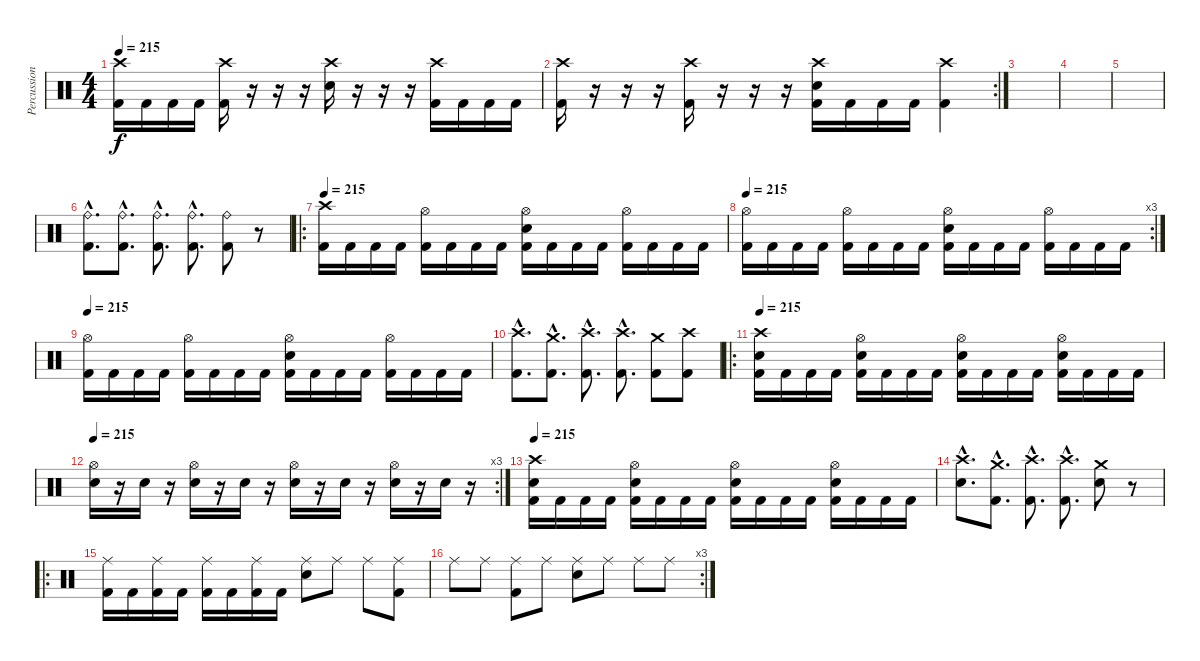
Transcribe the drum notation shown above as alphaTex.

\track ("Percussions" "Percussion") {instrument percussion}
\staff {score}
\articulation defaults
\ts (4 4)
\tempo 215
\clef neutral
\ks c
("Crash high (hit)" "Kick (hit) 2").16{dy f} "Kick (hit) 2".16 "Kick (hit) 2".16 "Kick (hit) 2".16 ("Crash high (hit)" "Kick (hit) 2").16 r.16 r.16 r.16 ("Crash high (hit)" "Electric Snare (hit)").16 r.16 r.16 r.16 ("Crash high (hit)" "Kick (hit) 2").16 "Kick (hit) 2".16 "Kick (hit) 2".16 "Kick (hit) 2".16 |
\rc 2
("Crash high (hit)" "Kick (hit) 2").16 r.16 r.16 r.16 ("Crash high (hit)" "Kick (hit) 2").16 r.16 r.16 r.16 ("Crash high (hit)" "Electric Snare (hit)" "Kick (hit) 2").16 "Kick (hit) 2".16 "Kick (hit) 2".16 "Kick (hit) 2".16 ("Crash high (hit)" "Kick (hit) 2").4 |
|
|
|
("Ride (bell)"{hac} "Kick (hit) 2"{hac}).8{d} ("Ride (bell)"{hac} "Kick (hit) 2"{hac}).8{d} ("Ride (bell)"{hac} "Kick (hit) 2"{hac}).8{d} ("Ride (bell)"{hac} "Kick (hit) 2"{hac}).8{d} ("Ride (bell)" "Kick (hit) 2").8 r.8 |
\ro
\tempo 215
("Crash high (hit)" "Kick (hit) 2").16 "Kick (hit) 2".16 "Kick (hit) 2".16 "Kick (hit) 2".16 ("Hi-Hat (open)" "Kick (hit) 2").16 "Kick (hit) 2".16 "Kick (hit) 2".16 "Kick (hit) 2".16 ("Hi-Hat (open)" "Electric Snare (hit)" "Kick (hit) 2").16 "Kick (hit) 2".16 "Kick (hit) 2".16 "Kick (hit) 2".16 ("Hi-Hat (open)" "Kick (hit) 2").16 "Kick (hit) 2".16 "Kick (hit) 2".16 "Kick (hit) 2".16 |
\rc 3
\tempo 215
("Hi-Hat (open)" "Kick (hit) 2").16 "Kick (hit) 2".16 "Kick (hit) 2".16 "Kick (hit) 2".16 ("Hi-Hat (open)" "Kick (hit) 2").16 "Kick (hit) 2".16 "Kick (hit) 2".16 "Kick (hit) 2".16 ("Hi-Hat (open)" "Electric Snare (hit)" "Kick (hit) 2").16 "Kick (hit) 2".16 "Kick (hit) 2".16 "Kick (hit) 2".16 ("Hi-Hat (open)" "Kick (hit) 2").16 "Kick (hit) 2".16 "Kick (hit) 2".16 "Kick (hit) 2".16 |
\tempo 215
("Hi-Hat (open)" "Kick (hit) 2").16 "Kick (hit) 2".16 "Kick (hit) 2".16 "Kick (hit) 2".16 ("Hi-Hat (open)" "Kick (hit) 2").16 "Kick (hit) 2".16 "Kick (hit) 2".16 "Kick (hit) 2".16 ("Hi-Hat (open)" "Electric Snare (hit)" "Kick (hit) 2").16 "Kick (hit) 2".16 "Kick (hit) 2".16 "Kick (hit) 2".16 ("Hi-Hat (open)" "Kick (hit) 2").16 "Kick (hit) 2".16 "Kick (hit) 2".16 "Kick (hit) 2".16 |
("Crash high (hit)"{hac} "Kick (hit) 2"{hac}).8{d} ("Crash medium (hit)"{hac} "Kick (hit) 2"{hac}).8{d} ("Crash high (hit)"{hac} "Kick (hit) 2"{hac}).8{d} ("Crash high (hit)"{hac} "Kick (hit) 2"{hac}).8{d} ("Crash medium (hit)" "Kick (hit) 2").8 ("Crash high (hit)" "Kick (hit) 2").8 |
\ro
\tempo 215
("Crash high (hit)" "Electric Snare (hit)" "Kick (hit) 2").16 "Kick (hit) 2".16 "Kick (hit) 2".16 "Kick (hit) 2".16 ("Hi-Hat (open)" "Electric Snare (hit)" "Kick (hit) 2").16 "Kick (hit) 2".16 "Kick (hit) 2".16 "Kick (hit) 2".16 ("Hi-Hat (open)" "Electric Snare (hit)" "Kick (hit) 2").16 "Kick (hit) 2".16 "Kick (hit) 2".16 "Kick (hit) 2".16 ("Hi-Hat (open)" "Electric Snare (hit)" "Kick (hit) 2").16 "Kick (hit) 2".16 "Kick (hit) 2".16 "Kick (hit) 2".16 |
\rc 3
\tempo 215
("Hi-Hat (open)" "Electric Snare (hit)").16 r.16 "Electric Snare (hit)".16 r.16 ("Hi-Hat (open)" "Electric Snare (hit)").16 r.16 "Electric Snare (hit)".16 r.16 ("Hi-Hat (open)" "Electric Snare (hit)").16 r.16 "Electric Snare (hit)".16 r.16 ("Hi-Hat (open)" "Electric Snare (hit)").16 r.16 "Electric Snare (hit)".16 r.16 |
\tempo 215
("Crash high (hit)" "Electric Snare (hit)" "Kick (hit) 2").16 "Kick (hit) 2".16 "Kick (hit) 2".16 "Kick (hit) 2".16 ("Hi-Hat (open)" "Electric Snare (hit)" "Kick (hit) 2").16 "Kick (hit) 2".16 "Kick (hit) 2".16 "Kick (hit) 2".16 ("Hi-Hat (open)" "Electric Snare (hit)" "Kick (hit) 2").16 "Kick (hit) 2".16 "Kick (hit) 2".16 "Kick (hit) 2".16 ("Hi-Hat (open)" "Electric Snare (hit)" "Kick (hit) 2").16 "Kick (hit) 2".16 "Kick (hit) 2".16 "Kick (hit) 2".16 |
("Crash high (hit)"{hac} "Electric Snare (hit)"{hac}).8{d} ("Crash medium (hit)"{hac} "Kick (hit) 2"{hac}).8{d} ("Crash high (hit)"{hac} "Kick (hit) 2"{hac}).8{d} ("Crash high (hit)"{hac} "Kick (hit) 2"{hac}).8{d} ("Crash medium (hit)" "Electric Snare (hit)").8 r.8 |
\ro
("Ride (middle)" "Kick (hit) 2").16 "Kick (hit) 2".16 ("Ride (middle)" "Kick (hit) 2").16 "Kick (hit) 2".16 ("Ride (middle)" "Kick (hit) 2").16 "Kick (hit) 2".16 ("Ride (middle)" "Kick (hit) 2").16 "Kick (hit) 2".16 ("Ride (middle)" "Electric Snare (hit)").8 "Ride (middle)".8 "Ride (middle)".8 ("Ride (middle)" "Kick (hit) 2").8 |
\rc 3 "Ride (middle)".8 "Ride (middle)".8
("Ride (middle)" "Kick (hit) 2").8 "Ride (middle)".8 ("Ride (middle)" "Electric Snare (hit)").8 "Ride (middle)".8 "Ride (middle)".8 "Ride (middle)".8
